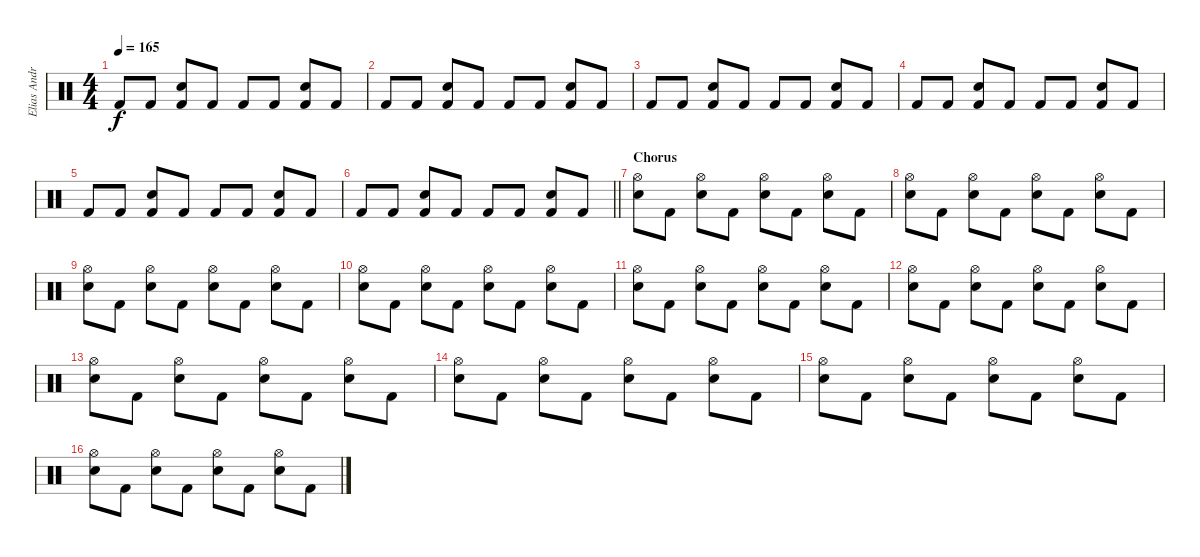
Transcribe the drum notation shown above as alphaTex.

\track ("Elias Andra-Drums" "Elias Andr") {instrument percussion}
\staff {score}
\articulation defaults
\ts (4 4)
\tempo 165
\clef neutral
\ks c "Kick (hit) 2".8{dy f} "Kick (hit) 2".8
("Kick (hit) 2" "Electric Snare (hit)").8 "Kick (hit) 2".8 "Kick (hit) 2".8 "Kick (hit) 2".8 ("Kick (hit) 2" "Electric Snare (hit)").8 "Kick (hit) 2".8 |
"Kick (hit) 2".8 "Kick (hit) 2".8 ("Kick (hit) 2" "Electric Snare (hit)").8 "Kick (hit) 2".8 "Kick (hit) 2".8 "Kick (hit) 2".8 ("Kick (hit) 2" "Electric Snare (hit)").8 "Kick (hit) 2".8 |
"Kick (hit) 2".8 "Kick (hit) 2".8 ("Kick (hit) 2" "Electric Snare (hit)").8 "Kick (hit) 2".8 "Kick (hit) 2".8 "Kick (hit) 2".8 ("Kick (hit) 2" "Electric Snare (hit)").8 "Kick (hit) 2".8 |
"Kick (hit) 2".8 "Kick (hit) 2".8 ("Kick (hit) 2" "Electric Snare (hit)").8 "Kick (hit) 2".8 "Kick (hit) 2".8 "Kick (hit) 2".8 ("Kick (hit) 2" "Electric Snare (hit)").8 "Kick (hit) 2".8 |
"Kick (hit) 2".8 "Kick (hit) 2".8 ("Kick (hit) 2" "Electric Snare (hit)").8 "Kick (hit) 2".8 "Kick (hit) 2".8 "Kick (hit) 2".8 ("Kick (hit) 2" "Electric Snare (hit)").8 "Kick (hit) 2".8 |
\barLineRight lightlight "Kick (hit) 2".8 "Kick (hit) 2".8
("Kick (hit) 2" "Electric Snare (hit)").8 "Kick (hit) 2".8 "Kick (hit) 2".8 "Kick (hit) 2".8 ("Kick (hit) 2" "Electric Snare (hit)").8 "Kick (hit) 2".8 |
\section ("" "Chorus")
("Electric Snare (hit)" "Hi-Hat (open)").8 "Kick (hit) 2".8 ("Electric Snare (hit)" "Hi-Hat (open)").8 "Kick (hit) 2".8 ("Electric Snare (hit)" "Hi-Hat (open)").8 "Kick (hit) 2".8 ("Electric Snare (hit)" "Hi-Hat (open)").8 "Kick (hit) 2".8 |
("Electric Snare (hit)" "Hi-Hat (open)").8 "Kick (hit) 2".8 ("Electric Snare (hit)" "Hi-Hat (open)").8 "Kick (hit) 2".8 ("Electric Snare (hit)" "Hi-Hat (open)").8 "Kick (hit) 2".8 ("Electric Snare (hit)" "Hi-Hat (open)").8 "Kick (hit) 2".8 |
("Electric Snare (hit)" "Hi-Hat (open)").8 "Kick (hit) 2".8 ("Electric Snare (hit)" "Hi-Hat (open)").8 "Kick (hit) 2".8 ("Electric Snare (hit)" "Hi-Hat (open)").8 "Kick (hit) 2".8 ("Electric Snare (hit)" "Hi-Hat (open)").8 "Kick (hit) 2".8 |
("Electric Snare (hit)" "Hi-Hat (open)").8 "Kick (hit) 2".8 ("Electric Snare (hit)" "Hi-Hat (open)").8 "Kick (hit) 2".8 ("Electric Snare (hit)" "Hi-Hat (open)").8 "Kick (hit) 2".8 ("Electric Snare (hit)" "Hi-Hat (open)").8 "Kick (hit) 2".8 |
("Electric Snare (hit)" "Hi-Hat (open)").8 "Kick (hit) 2".8 ("Electric Snare (hit)" "Hi-Hat (open)").8 "Kick (hit) 2".8 ("Electric Snare (hit)" "Hi-Hat (open)").8 "Kick (hit) 2".8 ("Electric Snare (hit)" "Hi-Hat (open)").8 "Kick (hit) 2".8 |
("Electric Snare (hit)" "Hi-Hat (open)").8 "Kick (hit) 2".8 ("Electric Snare (hit)" "Hi-Hat (open)").8 "Kick (hit) 2".8 ("Electric Snare (hit)" "Hi-Hat (open)").8 "Kick (hit) 2".8 ("Electric Snare (hit)" "Hi-Hat (open)").8 "Kick (hit) 2".8 |
("Electric Snare (hit)" "Hi-Hat (open)").8 "Kick (hit) 2".8 ("Electric Snare (hit)" "Hi-Hat (open)").8 "Kick (hit) 2".8 ("Electric Snare (hit)" "Hi-Hat (open)").8 "Kick (hit) 2".8 ("Electric Snare (hit)" "Hi-Hat (open)").8 "Kick (hit) 2".8 |
("Electric Snare (hit)" "Hi-Hat (open)").8 "Kick (hit) 2".8 ("Electric Snare (hit)" "Hi-Hat (open)").8 "Kick (hit) 2".8 ("Electric Snare (hit)" "Hi-Hat (open)").8 "Kick (hit) 2".8 ("Electric Snare (hit)" "Hi-Hat (open)").8 "Kick (hit) 2".8 |
("Electric Snare (hit)" "Hi-Hat (open)").8 "Kick (hit) 2".8 ("Electric Snare (hit)" "Hi-Hat (open)").8 "Kick (hit) 2".8 ("Electric Snare (hit)" "Hi-Hat (open)").8 "Kick (hit) 2".8 ("Electric Snare (hit)" "Hi-Hat (open)").8 "Kick (hit) 2".8 |
("Electric Snare (hit)" "Hi-Hat (open)").8 "Kick (hit) 2".8 ("Electric Snare (hit)" "Hi-Hat (open)").8 "Kick (hit) 2".8 ("Electric Snare (hit)" "Hi-Hat (open)").8 "Kick (hit) 2".8 ("Electric Snare (hit)" "Hi-Hat (open)").8 "Kick (hit) 2".8
